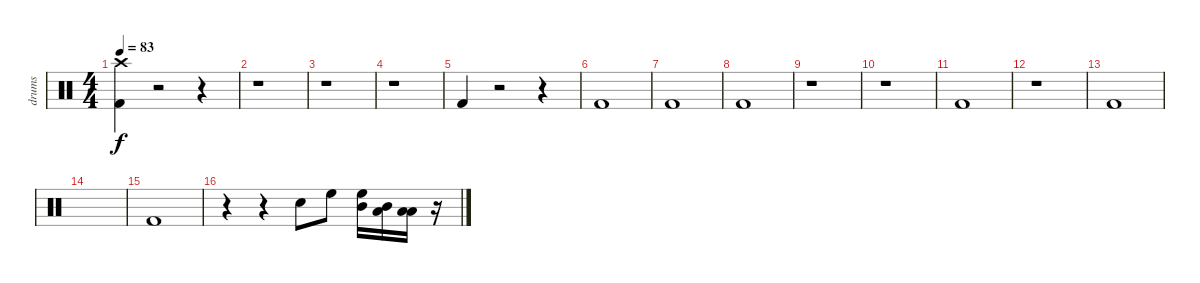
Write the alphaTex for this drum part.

\track ("drums" "drums") {instrument percussion}
\staff {score}
\articulation defaults
\ts (4 4)
\tempo 83
\clef neutral
\ks c
("Crash high (hit)" "Kick (hit) 2").4{dy f} r.2 r.4 |
r.1 |
r.1 |
r.1 |
"Kick (hit) 2".4 r.2 r.4 |
"Kick (hit) 2".1 |
"Kick (hit) 2".1 |
"Kick (hit) 2".1 |
r.1 |
r.1 |
"Kick (hit) 2".1 |
r.1 |
"Kick (hit) 2".1 |
|
"Kick (hit) 2".1 |
r.4 r.4 "Snare (hit) 2".8 "High Floor Tom (hit)".8 ("Mid Tom (hit)" "High Floor Tom (hit)").16 ("Low Tom (hit)" "Mid Tom (hit)").16 ("Low Floor Tom (hit)" "Low Floor Tom (hit)").16 r.16
